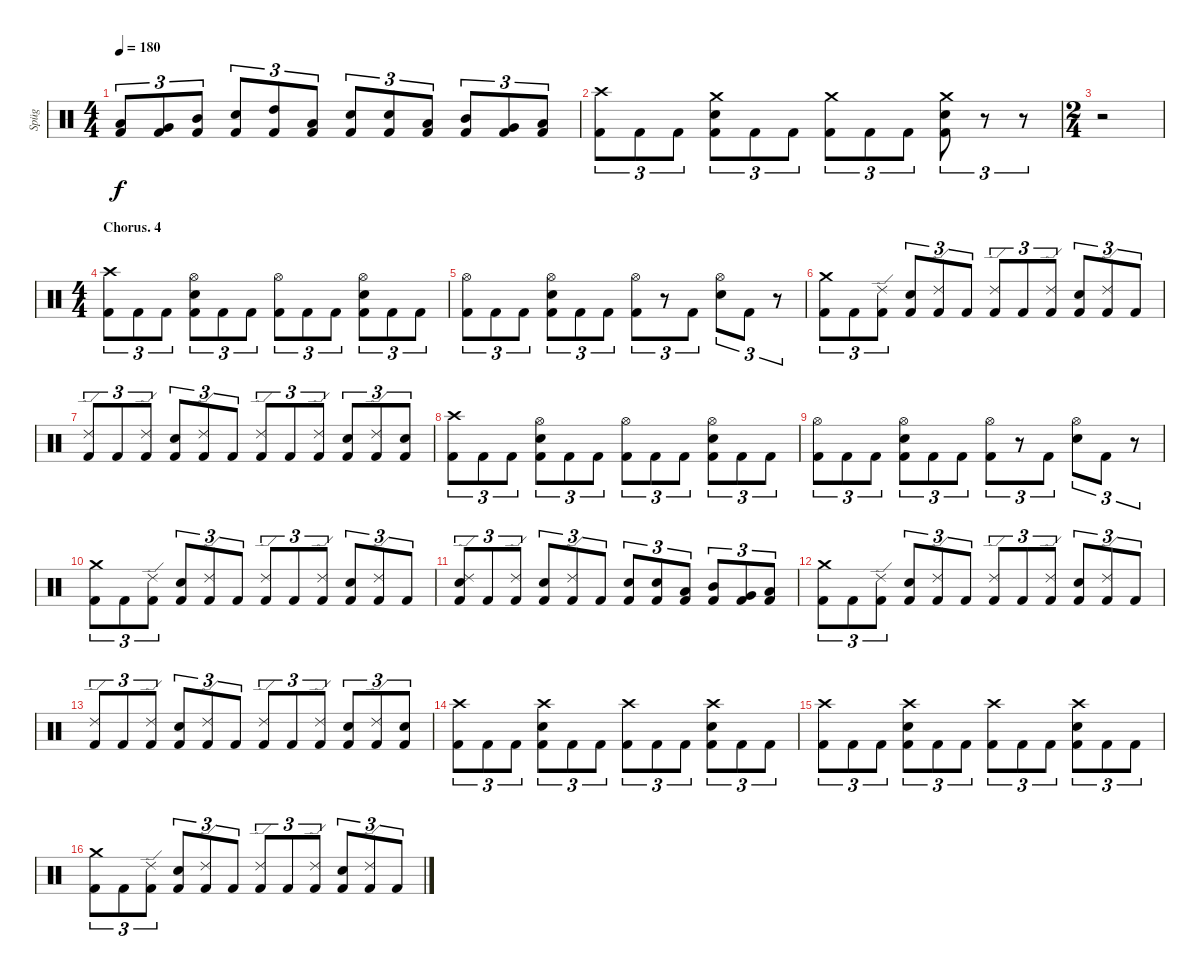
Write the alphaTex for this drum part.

\track ("Spüg" "Spüg") {instrument percussion}
\staff {score}
\articulation defaults
\ts (4 4)
\tempo 180
\clef neutral
\ks c
("Low Tom (hit)" "Kick (hit) 2").8{tu (3 2) dy f} ("Very Low Tom (hit)" "Kick (hit) 2").8{tu (3 2)} ("Mid Tom (hit)" "Kick (hit) 2").8{tu (3 2)} ("Electric Snare (hit)" "Kick (hit) 2").8{tu (3 2)} ("High Tom (hit)" "Kick (hit) 2").8{tu (3 2)} ("Low Tom (hit)" "Kick (hit) 2").8{tu (3 2)} ("Electric Snare (hit)" "Kick (hit) 2").8{tu (3 2)} ("Electric Snare (hit)" "Kick (hit) 2").8{tu (3 2)} ("Low Floor Tom (hit)" "Kick (hit) 2").8{tu (3 2)} ("Mid Tom (hit)" "Kick (hit) 2").8{tu (3 2)} ("Very Low Tom (hit)" "Kick (hit) 2").8{tu (3 2)} ("Low Floor Tom (hit)" "Kick (hit) 2").8{tu (3 2)} |
("Crash high (hit)" "Kick (hit) 2").8{tu (3 2)} "Kick (hit) 2".8{tu (3 2)} "Kick (hit) 2".8{tu (3 2)} ("Crash medium (hit)" "Electric Snare (hit)" "Kick (hit) 2").8{tu (3 2)} "Kick (hit) 2".8{tu (3 2)} "Kick (hit) 2".8{tu (3 2)} ("Crash medium (hit)" "Kick (hit) 2").8{tu (3 2)} "Kick (hit) 2".8{tu (3 2)} "Kick (hit) 2".8{tu (3 2)} ("Crash medium (hit)" "Electric Snare (hit)" "Kick (hit) 2").8{tu (3 2)} r.8{tu (3 2)} r.8{tu (3 2)} |
\ts (2 4)
r.2 |
\ts (4 4)
\section ("" "Chorus. 4")
("Crash high (hit)" "Kick (hit) 2").8{tu (3 2)} "Kick (hit) 2".8{tu (3 2)} "Kick (hit) 2".8{tu (3 2)} ("Hi-Hat (open)" "Electric Snare (hit)" "Kick (hit) 2").8{tu (3 2)} "Kick (hit) 2".8{tu (3 2)} "Kick (hit) 2".8{tu (3 2)} ("Hi-Hat (open)" "Kick (hit) 2").8{tu (3 2)} "Kick (hit) 2".8{tu (3 2)} "Kick (hit) 2".8{tu (3 2)} ("Hi-Hat (open)" "Electric Snare (hit)" "Kick (hit) 2").8{tu (3 2)} "Kick (hit) 2".8{tu (3 2)} "Kick (hit) 2".8{tu (3 2)} |
("Hi-Hat (open)" "Kick (hit) 2").8{tu (3 2)} "Kick (hit) 2".8{tu (3 2)} "Kick (hit) 2".8{tu (3 2)} ("Hi-Hat (open)" "Electric Snare (hit)" "Kick (hit) 2").8{tu (3 2)} "Kick (hit) 2".8{tu (3 2)} "Kick (hit) 2".8{tu (3 2)} ("Hi-Hat (open)" "Kick (hit) 2").8{tu (3 2)} r.8{tu (3 2)} "Kick (hit) 2".8{tu (3 2)} ("Hi-Hat (open)" "Electric Snare (hit)").8{tu (3 2)} "Kick (hit) 2".8{tu (3 2)} r.8{tu (3 2)} |
("Crash medium (hit)" "Kick (hit) 2").8{tu (3 2)} "Kick (hit) 2".8{tu (3 2)} ("Ride (edge) 2" "Kick (hit) 2").8{tu (3 2)} ("Electric Snare (hit)" "Kick (hit) 2").8{tu (3 2)} ("Ride (edge) 2" "Kick (hit) 2").8{tu (3 2)} "Kick (hit) 2".8{tu (3 2)} ("Ride (edge) 2" "Kick (hit) 2").8{tu (3 2)} "Kick (hit) 2".8{tu (3 2)} ("Ride (edge) 2" "Kick (hit) 2").8{tu (3 2)} ("Electric Snare (hit)" "Kick (hit) 2").8{tu (3 2)} ("Ride (edge) 2" "Kick (hit) 2").8{tu (3 2)} "Kick (hit) 2".8{tu (3 2)} |
("Ride (edge) 2" "Kick (hit) 2").8{tu (3 2)} "Kick (hit) 2".8{tu (3 2)} ("Ride (edge) 2" "Kick (hit) 2").8{tu (3 2)} ("Electric Snare (hit)" "Kick (hit) 2").8{tu (3 2)} ("Ride (edge) 2" "Kick (hit) 2").8{tu (3 2)} "Kick (hit) 2".8{tu (3 2)} ("Ride (edge) 2" "Kick (hit) 2").8{tu (3 2)} "Kick (hit) 2".8{tu (3 2)} ("Ride (edge) 2" "Kick (hit) 2").8{tu (3 2)} ("Electric Snare (hit)" "Kick (hit) 2").8{tu (3 2)} ("Ride (edge) 2" "Kick (hit) 2").8{tu (3 2)} ("Electric Snare (hit)" "Kick (hit) 2").8{tu (3 2)} |
("Crash high (hit)" "Kick (hit) 2").8{tu (3 2)} "Kick (hit) 2".8{tu (3 2)} "Kick (hit) 2".8{tu (3 2)} ("Hi-Hat (open)" "Electric Snare (hit)" "Kick (hit) 2").8{tu (3 2)} "Kick (hit) 2".8{tu (3 2)} "Kick (hit) 2".8{tu (3 2)} ("Hi-Hat (open)" "Kick (hit) 2").8{tu (3 2)} "Kick (hit) 2".8{tu (3 2)} "Kick (hit) 2".8{tu (3 2)} ("Hi-Hat (open)" "Electric Snare (hit)" "Kick (hit) 2").8{tu (3 2)} "Kick (hit) 2".8{tu (3 2)} "Kick (hit) 2".8{tu (3 2)} |
("Hi-Hat (open)" "Kick (hit) 2").8{tu (3 2)} "Kick (hit) 2".8{tu (3 2)} "Kick (hit) 2".8{tu (3 2)} ("Hi-Hat (open)" "Electric Snare (hit)" "Kick (hit) 2").8{tu (3 2)} "Kick (hit) 2".8{tu (3 2)} "Kick (hit) 2".8{tu (3 2)} ("Hi-Hat (open)" "Kick (hit) 2").8{tu (3 2)} r.8{tu (3 2)} "Kick (hit) 2".8{tu (3 2)} ("Hi-Hat (open)" "Electric Snare (hit)").8{tu (3 2)} "Kick (hit) 2".8{tu (3 2)} r.8{tu (3 2)} |
("Crash medium (hit)" "Kick (hit) 2").8{tu (3 2)} "Kick (hit) 2".8{tu (3 2)} ("Ride (edge) 2" "Kick (hit) 2").8{tu (3 2)} ("Electric Snare (hit)" "Kick (hit) 2").8{tu (3 2)} ("Ride (edge) 2" "Kick (hit) 2").8{tu (3 2)} "Kick (hit) 2".8{tu (3 2)} ("Ride (edge) 2" "Kick (hit) 2").8{tu (3 2)} "Kick (hit) 2".8{tu (3 2)} ("Ride (edge) 2" "Kick (hit) 2").8{tu (3 2)} ("Electric Snare (hit)" "Kick (hit) 2").8{tu (3 2)} ("Ride (edge) 2" "Kick (hit) 2").8{tu (3 2)} "Kick (hit) 2".8{tu (3 2)} |
("Ride (edge) 2" "Electric Snare (hit)" "Kick (hit) 2").8{tu (3 2)} "Kick (hit) 2".8{tu (3 2)} ("Ride (edge) 2" "Kick (hit) 2").8{tu (3 2)} ("Electric Snare (hit)" "Kick (hit) 2").8{tu (3 2)} ("Ride (edge) 2" "Kick (hit) 2").8{tu (3 2)} "Kick (hit) 2".8{tu (3 2)} ("Electric Snare (hit)" "Kick (hit) 2").8{tu (3 2)} ("Electric Snare (hit)" "Kick (hit) 2").8{tu (3 2)} ("Low Tom (hit)" "Kick (hit) 2").8{tu (3 2)} ("Mid Tom (hit)" "Kick (hit) 2").8{tu (3 2)} ("Very Low Tom (hit)" "Kick (hit) 2").8{tu (3 2)} ("Low Floor Tom (hit)" "Kick (hit) 2").8{tu (3 2)} |
("Crash medium (hit)" "Kick (hit) 2").8{tu (3 2)} "Kick (hit) 2".8{tu (3 2)} ("Ride (edge) 2" "Kick (hit) 2").8{tu (3 2)} ("Electric Snare (hit)" "Kick (hit) 2").8{tu (3 2)} ("Ride (edge) 2" "Kick (hit) 2").8{tu (3 2)} "Kick (hit) 2".8{tu (3 2)} ("Ride (edge) 2" "Kick (hit) 2").8{tu (3 2)} "Kick (hit) 2".8{tu (3 2)} ("Ride (edge) 2" "Kick (hit) 2").8{tu (3 2)} ("Electric Snare (hit)" "Kick (hit) 2").8{tu (3 2)} ("Ride (edge) 2" "Kick (hit) 2").8{tu (3 2)} "Kick (hit) 2".8{tu (3 2)} |
("Ride (edge) 2" "Kick (hit) 2").8{tu (3 2)} "Kick (hit) 2".8{tu (3 2)} ("Ride (edge) 2" "Kick (hit) 2").8{tu (3 2)} ("Electric Snare (hit)" "Kick (hit) 2").8{tu (3 2)} ("Ride (edge) 2" "Kick (hit) 2").8{tu (3 2)} "Kick (hit) 2".8{tu (3 2)} ("Ride (edge) 2" "Kick (hit) 2").8{tu (3 2)} "Kick (hit) 2".8{tu (3 2)} ("Ride (edge) 2" "Kick (hit) 2").8{tu (3 2)} ("Electric Snare (hit)" "Kick (hit) 2").8{tu (3 2)} ("Ride (edge) 2" "Kick (hit) 2").8{tu (3 2)} ("Electric Snare (hit)" "Kick (hit) 2").8{tu (3 2)} |
("Crash high (hit)" "Kick (hit) 2").8{tu (3 2)} "Kick (hit) 2".8{tu (3 2)} "Kick (hit) 2".8{tu (3 2)} ("Crash high (hit)" "Electric Snare (hit)" "Kick (hit) 2").8{tu (3 2)} "Kick (hit) 2".8{tu (3 2)} "Kick (hit) 2".8{tu (3 2)} ("Crash high (hit)" "Kick (hit) 2").8{tu (3 2)} "Kick (hit) 2".8{tu (3 2)} "Kick (hit) 2".8{tu (3 2)} ("Crash high (hit)" "Electric Snare (hit)" "Kick (hit) 2").8{tu (3 2)} "Kick (hit) 2".8{tu (3 2)} "Kick (hit) 2".8{tu (3 2)} |
("Crash high (hit)" "Kick (hit) 2").8{tu (3 2)} "Kick (hit) 2".8{tu (3 2)} "Kick (hit) 2".8{tu (3 2)} ("Crash high (hit)" "Electric Snare (hit)" "Kick (hit) 2").8{tu (3 2)} "Kick (hit) 2".8{tu (3 2)} "Kick (hit) 2".8{tu (3 2)} ("Crash high (hit)" "Kick (hit) 2").8{tu (3 2)} "Kick (hit) 2".8{tu (3 2)} "Kick (hit) 2".8{tu (3 2)} ("Crash high (hit)" "Electric Snare (hit)" "Kick (hit) 2").8{tu (3 2)} "Kick (hit) 2".8{tu (3 2)} "Kick (hit) 2".8{tu (3 2)} |
("Crash medium (hit)" "Kick (hit) 2").8{tu (3 2)} "Kick (hit) 2".8{tu (3 2)} ("Ride (edge) 2" "Kick (hit) 2").8{tu (3 2)} ("Electric Snare (hit)" "Kick (hit) 2").8{tu (3 2)} ("Ride (edge) 2" "Kick (hit) 2").8{tu (3 2)} "Kick (hit) 2".8{tu (3 2)} ("Ride (edge) 2" "Kick (hit) 2").8{tu (3 2)} "Kick (hit) 2".8{tu (3 2)} ("Ride (edge) 2" "Kick (hit) 2").8{tu (3 2)} ("Electric Snare (hit)" "Kick (hit) 2").8{tu (3 2)} ("Ride (edge) 2" "Kick (hit) 2").8{tu (3 2)} "Kick (hit) 2".8{tu (3 2)}
